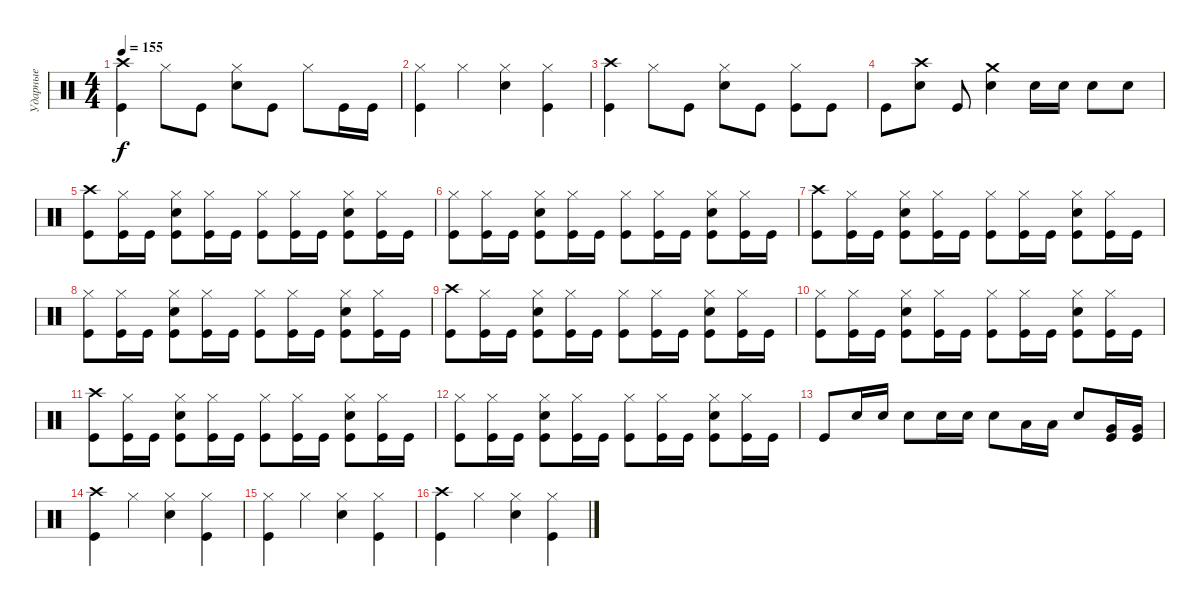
\track ("Ударные" "Ударные") {instrument percussion}
\staff {score}
\articulation defaults
\ts (4 4)
\tempo 155
\clef neutral
\ks c
("Crash high (hit)" "Kick (hit)").4{dy f} "Hi-Hat (closed)".8 "Kick (hit)".8 ("Hi-Hat (closed)" "Electric Snare (hit)").8 "Kick (hit)".8 "Hi-Hat (closed)".8 "Kick (hit)".16 "Kick (hit)".16 |
("Hi-Hat (closed)" "Kick (hit)").4 "Hi-Hat (closed)".4 ("Hi-Hat (closed)" "Electric Snare (hit)").4 ("Hi-Hat (closed)" "Kick (hit)").4 |
("Crash high (hit)" "Kick (hit)").4 "Hi-Hat (closed)".8 "Kick (hit)".8 ("Hi-Hat (closed)" "Electric Snare (hit)").8 "Kick (hit)".8 ("Hi-Hat (closed)" "Kick (hit)").8 "Kick (hit)".8 |
"Kick (hit)".8 ("Crash high (hit)" "Electric Snare (hit)").8 "Kick (hit)".8 ("Crash medium (hit)" "Electric Snare (hit)").4 "Electric Snare (hit)".16 "Electric Snare (hit)".16 "Electric Snare (hit)".8 "Electric Snare (hit)".8 |
("Crash high (hit)" "Kick (hit)").8 ("Hi-Hat (closed)" "Kick (hit)").16 "Kick (hit)".16 ("Hi-Hat (closed)" "Electric Snare (hit)" "Kick (hit)").8 ("Hi-Hat (closed)" "Kick (hit)").16 "Kick (hit)".16 ("Hi-Hat (closed)" "Kick (hit)").8 ("Hi-Hat (closed)" "Kick (hit)").16 "Kick (hit)".16 ("Hi-Hat (closed)" "Electric Snare (hit)" "Kick (hit)").8 ("Hi-Hat (closed)" "Kick (hit)").16 "Kick (hit)".16 |
("Hi-Hat (closed)" "Kick (hit)").8 ("Hi-Hat (closed)" "Kick (hit)").16 "Kick (hit)".16 ("Hi-Hat (closed)" "Electric Snare (hit)" "Kick (hit)").8 ("Hi-Hat (closed)" "Kick (hit)").16 "Kick (hit)".16 ("Hi-Hat (closed)" "Kick (hit)").8 ("Hi-Hat (closed)" "Kick (hit)").16 "Kick (hit)".16 ("Hi-Hat (closed)" "Electric Snare (hit)" "Kick (hit)").8 ("Hi-Hat (closed)" "Kick (hit)").16 "Kick (hit)".16 |
("Crash high (hit)" "Kick (hit)").8 ("Hi-Hat (closed)" "Kick (hit)").16 "Kick (hit)".16 ("Hi-Hat (closed)" "Electric Snare (hit)" "Kick (hit)").8 ("Hi-Hat (closed)" "Kick (hit)").16 "Kick (hit)".16 ("Hi-Hat (closed)" "Kick (hit)").8 ("Hi-Hat (closed)" "Kick (hit)").16 "Kick (hit)".16 ("Hi-Hat (closed)" "Electric Snare (hit)" "Kick (hit)").8 ("Hi-Hat (closed)" "Kick (hit)").16 "Kick (hit)".16 |
("Hi-Hat (closed)" "Kick (hit)").8 ("Hi-Hat (closed)" "Kick (hit)").16 "Kick (hit)".16 ("Hi-Hat (closed)" "Electric Snare (hit)" "Kick (hit)").8 ("Hi-Hat (closed)" "Kick (hit)").16 "Kick (hit)".16 ("Hi-Hat (closed)" "Kick (hit)").8 ("Hi-Hat (closed)" "Kick (hit)").16 "Kick (hit)".16 ("Hi-Hat (closed)" "Electric Snare (hit)" "Kick (hit)").8 ("Hi-Hat (closed)" "Kick (hit)").16 "Kick (hit)".16 |
("Crash high (hit)" "Kick (hit)").8 ("Hi-Hat (closed)" "Kick (hit)").16 "Kick (hit)".16 ("Hi-Hat (closed)" "Electric Snare (hit)" "Kick (hit)").8 ("Hi-Hat (closed)" "Kick (hit)").16 "Kick (hit)".16 ("Hi-Hat (closed)" "Kick (hit)").8 ("Hi-Hat (closed)" "Kick (hit)").16 "Kick (hit)".16 ("Hi-Hat (closed)" "Electric Snare (hit)" "Kick (hit)").8 ("Hi-Hat (closed)" "Kick (hit)").16 "Kick (hit)".16 |
("Hi-Hat (closed)" "Kick (hit)").8 ("Hi-Hat (closed)" "Kick (hit)").16 "Kick (hit)".16 ("Hi-Hat (closed)" "Electric Snare (hit)" "Kick (hit)").8 ("Hi-Hat (closed)" "Kick (hit)").16 "Kick (hit)".16 ("Hi-Hat (closed)" "Kick (hit)").8 ("Hi-Hat (closed)" "Kick (hit)").16 "Kick (hit)".16 ("Hi-Hat (closed)" "Electric Snare (hit)" "Kick (hit)").8 ("Hi-Hat (closed)" "Kick (hit)").16 "Kick (hit)".16 |
("Crash high (hit)" "Kick (hit)").8 ("Hi-Hat (closed)" "Kick (hit)").16 "Kick (hit)".16 ("Hi-Hat (closed)" "Electric Snare (hit)" "Kick (hit)").8 ("Hi-Hat (closed)" "Kick (hit)").16 "Kick (hit)".16 ("Hi-Hat (closed)" "Kick (hit)").8 ("Hi-Hat (closed)" "Kick (hit)").16 "Kick (hit)".16 ("Hi-Hat (closed)" "Electric Snare (hit)" "Kick (hit)").8 ("Hi-Hat (closed)" "Kick (hit)").16 "Kick (hit)".16 |
("Hi-Hat (closed)" "Kick (hit)").8 ("Hi-Hat (closed)" "Kick (hit)").16 "Kick (hit)".16 ("Hi-Hat (closed)" "Electric Snare (hit)" "Kick (hit)").8 ("Hi-Hat (closed)" "Kick (hit)").16 "Kick (hit)".16 ("Hi-Hat (closed)" "Kick (hit)").8 ("Hi-Hat (closed)" "Kick (hit)").16 "Kick (hit)".16 ("Hi-Hat (closed)" "Electric Snare (hit)" "Kick (hit)").8 ("Hi-Hat (closed)" "Kick (hit)").16 "Kick (hit)".16 |
"Kick (hit)".8 "Electric Snare (hit)".16 "Electric Snare (hit)".16 "Electric Snare (hit)".8 "Electric Snare (hit)".16 "Electric Snare (hit)".16 "Electric Snare (hit)".8 "Low Tom (hit)".16 "Low Tom (hit)".16 "Electric Snare (hit)".8 ("Very Low Tom (hit)" "Kick (hit)").16 ("Very Low Tom (hit)" "Kick (hit)").16 |
("Crash high (hit)" "Kick (hit)").4 "Hi-Hat (closed)".4 ("Hi-Hat (closed)" "Electric Snare (hit)").4 ("Hi-Hat (closed)" "Kick (hit)").4 |
("Hi-Hat (closed)" "Kick (hit)").4 "Hi-Hat (closed)".4 ("Hi-Hat (closed)" "Electric Snare (hit)").4 ("Hi-Hat (closed)" "Kick (hit)").4 |
("Crash high (hit)" "Kick (hit)").4 "Hi-Hat (closed)".4 ("Hi-Hat (closed)" "Electric Snare (hit)").4 ("Hi-Hat (closed)" "Kick (hit)").4
